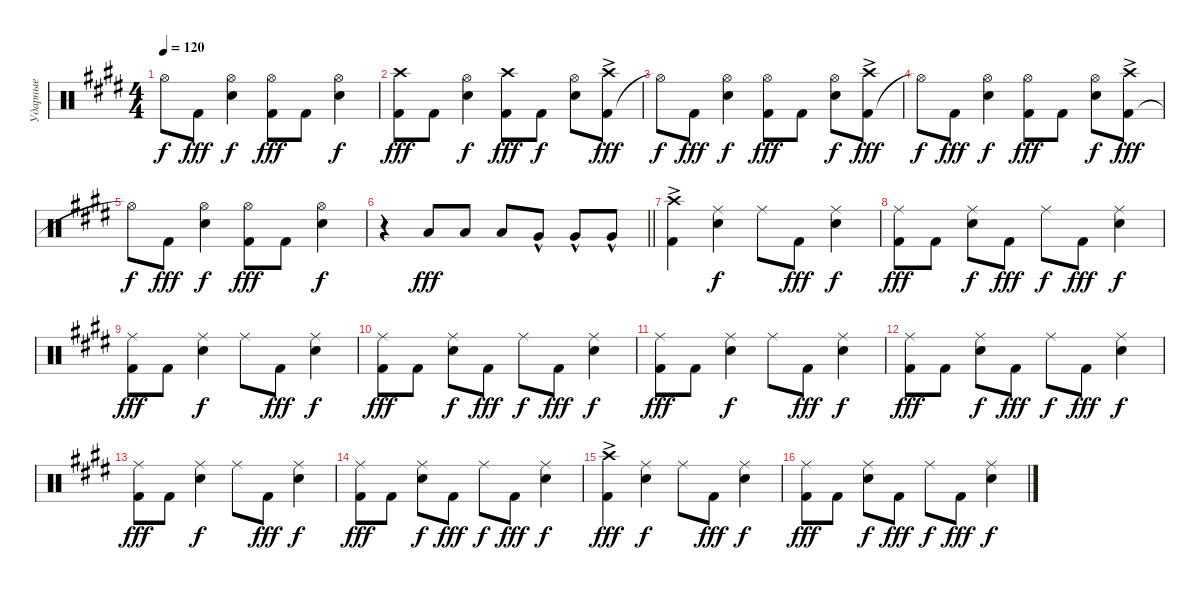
\track ("Ударные" "Ударные") {instrument percussion}
\staff {score}
\articulation defaults
\ts (4 4)
\tempo 120
\clef neutral
\ks e "Hi-Hat (open)"{t}.8{dy f} "Kick (hit) 2".8{dy fff}
("Snare (hit) 2" "Hi-Hat (open)").4{dy f} ("Kick (hit) 2" "Hi-Hat (open)").8{dy fff} "Kick (hit) 2".8 ("Snare (hit) 2" "Hi-Hat (open)").4{dy f} |
("Kick (hit) 2" "Crash high (hit)").8{dy fff} "Kick (hit) 2".8 ("Snare (hit) 2" "Hi-Hat (open)").4{dy f} ("Kick (hit) 2" "Crash high (hit)").8{dy fff} "Kick (hit) 2".8{dy f} ("Snare (hit) 2" "Hi-Hat (open)").8 ("Kick (hit) 2" "Crash high (hit)"{ac}).8{dy fff} |
"Hi-Hat (open)"{t}.8{dy f} "Kick (hit) 2".8{dy fff} ("Snare (hit) 2" "Hi-Hat (open)").4{dy f} ("Kick (hit) 2" "Hi-Hat (open)").8{dy fff} "Kick (hit) 2".8 ("Snare (hit) 2" "Hi-Hat (open)").8{dy f} ("Kick (hit) 2" "Crash high (hit)"{ac}).8{dy fff} |
"Hi-Hat (open)"{t}.8{dy f} "Kick (hit) 2".8{dy fff} ("Snare (hit) 2" "Hi-Hat (open)").4{dy f} ("Kick (hit) 2" "Hi-Hat (open)").8{dy fff} "Kick (hit) 2".8 ("Snare (hit) 2" "Hi-Hat (open)").8{dy f} ("Kick (hit) 2" "Crash high (hit)"{ac}).8{dy fff} |
"Hi-Hat (open)"{t}.8{dy f} "Kick (hit) 2".8{dy fff} ("Snare (hit) 2" "Hi-Hat (open)").4{dy f} ("Kick (hit) 2" "Hi-Hat (open)").8{dy fff} "Kick (hit) 2".8 ("Snare (hit) 2" "Hi-Hat (open)").4{dy f} |
\barLineRight lightlight
r.4 "Low Tom (hit)".8{dy fff} "Low Tom (hit)".8 "Low Tom (hit)".8 "Very Low Tom (hit)"{hac}.8 "Very Low Tom (hit)"{hac}.8 "Very Low Tom (hit)"{hac}.8 |
("Kick (hit) 2" "Crash high (hit)"{ac}).4 ("Snare (hit) 2" "Ride (middle)").4{dy f} "Ride (middle)".8 "Kick (hit) 2".8{dy fff} ("Snare (hit) 2" "Ride (middle)").4{dy f} |
("Kick (hit) 2" "Ride (middle)").8{dy fff} "Kick (hit) 2".8 ("Snare (hit) 2" "Ride (middle)").8{dy f} "Kick (hit) 2".8{dy fff} "Ride (middle)".8{dy f} "Kick (hit) 2".8{dy fff} ("Snare (hit) 2" "Ride (middle)").4{dy f} |
("Kick (hit) 2" "Ride (middle)").8{dy fff} "Kick (hit) 2".8 ("Snare (hit) 2" "Ride (middle)").4{dy f} "Ride (middle)".8 "Kick (hit) 2".8{dy fff} ("Snare (hit) 2" "Ride (middle)").4{dy f} |
("Kick (hit) 2" "Ride (middle)").8{dy fff} "Kick (hit) 2".8 ("Snare (hit) 2" "Ride (middle)").8{dy f} "Kick (hit) 2".8{dy fff} "Ride (middle)".8{dy f} "Kick (hit) 2".8{dy fff} ("Snare (hit) 2" "Ride (middle)").4{dy f} |
("Kick (hit) 2" "Ride (middle)").8{dy fff} "Kick (hit) 2".8 ("Snare (hit) 2" "Ride (middle)").4{dy f} "Ride (middle)".8 "Kick (hit) 2".8{dy fff} ("Snare (hit) 2" "Ride (middle)").4{dy f} |
("Kick (hit) 2" "Ride (middle)").8{dy fff} "Kick (hit) 2".8 ("Snare (hit) 2" "Ride (middle)").8{dy f} "Kick (hit) 2".8{dy fff} "Ride (middle)".8{dy f} "Kick (hit) 2".8{dy fff} ("Snare (hit) 2" "Ride (middle)").4{dy f} |
("Kick (hit) 2" "Ride (middle)").8{dy fff} "Kick (hit) 2".8 ("Snare (hit) 2" "Ride (middle)").4{dy f} "Ride (middle)".8 "Kick (hit) 2".8{dy fff} ("Snare (hit) 2" "Ride (middle)").4{dy f} |
("Kick (hit) 2" "Ride (middle)").8{dy fff} "Kick (hit) 2".8 ("Snare (hit) 2" "Ride (middle)").8{dy f} "Kick (hit) 2".8{dy fff} "Ride (middle)".8{dy f} "Kick (hit) 2".8{dy fff} ("Snare (hit) 2" "Ride (middle)").4{dy f} |
("Kick (hit) 2" "Crash high (hit)"{ac}).4{dy fff} ("Snare (hit) 2" "Ride (middle)").4{dy f} "Ride (middle)".8 "Kick (hit) 2".8{dy fff} ("Snare (hit) 2" "Ride (middle)").4{dy f} |
("Kick (hit) 2" "Ride (middle)").8{dy fff} "Kick (hit) 2".8 ("Snare (hit) 2" "Ride (middle)").8{dy f} "Kick (hit) 2".8{dy fff} "Ride (middle)".8{dy f} "Kick (hit) 2".8{dy fff} ("Snare (hit) 2" "Ride (middle)").4{dy f}
